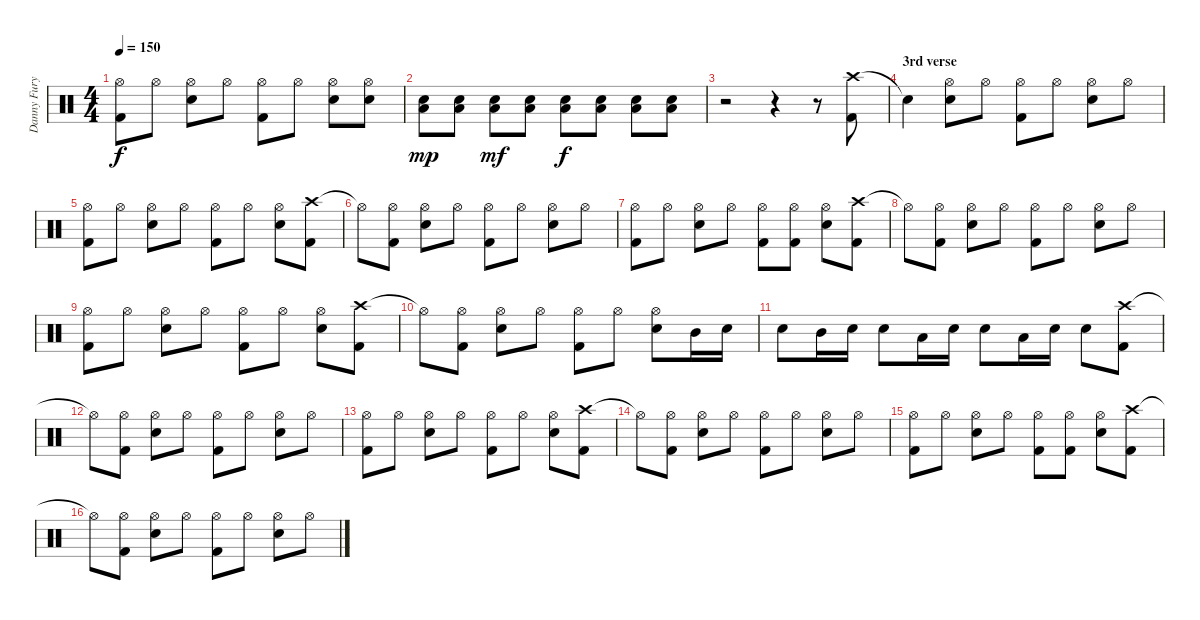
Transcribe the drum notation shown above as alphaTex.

\track ("Danny Fury" "Danny Fury") {instrument percussion}
\staff {score}
\articulation defaults
\ts (4 4)
\tempo 150
\clef neutral
\ks c
("Hi-Hat (open)" "Kick (hit) 2").8{dy f} "Hi-Hat (open)".8 ("Hi-Hat (open)" "Electric Snare (hit)").8 "Hi-Hat (open)".8 ("Hi-Hat (open)" "Kick (hit) 2").8 "Hi-Hat (open)".8 ("Hi-Hat (open)" "Electric Snare (hit)").8 ("Hi-Hat (open)" "Electric Snare (hit)").8 |
("Low Floor Tom (hit)" "Electric Snare (hit)").8{dy mp} ("Low Floor Tom (hit)" "Electric Snare (hit)").8 ("Low Floor Tom (hit)" "Electric Snare (hit)").8{dy mf} ("Low Floor Tom (hit)" "Electric Snare (hit)").8 ("Low Floor Tom (hit)" "Electric Snare (hit)").8{dy f} ("Low Floor Tom (hit)" "Electric Snare (hit)").8 ("Low Floor Tom (hit)" "Electric Snare (hit)").8 ("Low Floor Tom (hit)" "Electric Snare (hit)").8 |
r.2 r.4 r.8 ("Crash high (hit)" "Kick (hit) 2").8 |
\section ("" "3rd verse")
"Snare (hit)"{t}.4 ("Hi-Hat (open)" "Electric Snare (hit)").8 "Hi-Hat (open)".8 ("Hi-Hat (open)" "Kick (hit) 2").8 "Hi-Hat (open)".8 ("Hi-Hat (open)" "Electric Snare (hit)").8 "Hi-Hat (open)".8 |
("Hi-Hat (open)" "Kick (hit) 2").8 "Hi-Hat (open)".8 ("Hi-Hat (open)" "Electric Snare (hit)").8 "Hi-Hat (open)".8 ("Hi-Hat (open)" "Kick (hit) 2").8 "Hi-Hat (open)".8 ("Hi-Hat (open)" "Electric Snare (hit)").8 ("Crash high (hit)" "Kick (hit) 2").8 |
"Hi-Hat (open)"{t}.8 ("Hi-Hat (open)" "Kick (hit) 2").8 ("Hi-Hat (open)" "Electric Snare (hit)").8 "Hi-Hat (open)".8 ("Hi-Hat (open)" "Kick (hit) 2").8 "Hi-Hat (open)".8 ("Hi-Hat (open)" "Electric Snare (hit)").8 "Hi-Hat (open)".8 |
("Hi-Hat (open)" "Kick (hit) 2").8 "Hi-Hat (open)".8 ("Hi-Hat (open)" "Electric Snare (hit)").8 "Hi-Hat (open)".8 ("Hi-Hat (open)" "Kick (hit) 2").8 ("Hi-Hat (open)" "Kick (hit) 2").8 ("Hi-Hat (open)" "Electric Snare (hit)").8 ("Crash high (hit)" "Kick (hit) 2").8 |
"Hi-Hat (open)"{t}.8 ("Hi-Hat (open)" "Kick (hit) 2").8 ("Hi-Hat (open)" "Electric Snare (hit)").8 "Hi-Hat (open)".8 ("Hi-Hat (open)" "Kick (hit) 2").8 "Hi-Hat (open)".8 ("Hi-Hat (open)" "Electric Snare (hit)").8 "Hi-Hat (open)".8 |
("Hi-Hat (open)" "Kick (hit) 2").8 "Hi-Hat (open)".8 ("Hi-Hat (open)" "Electric Snare (hit)").8 "Hi-Hat (open)".8 ("Hi-Hat (open)" "Kick (hit) 2").8 "Hi-Hat (open)".8 ("Hi-Hat (open)" "Electric Snare (hit)").8 ("Crash high (hit)" "Kick (hit) 2").8 |
"Hi-Hat (open)"{t}.8 ("Hi-Hat (open)" "Kick (hit) 2").8 ("Hi-Hat (open)" "Electric Snare (hit)").8 "Hi-Hat (open)".8 ("Hi-Hat (open)" "Kick (hit) 2").8 "Hi-Hat (open)".8 ("Hi-Hat (open)" "Electric Snare (hit)").8 "Mid Tom (hit)".16 "Electric Snare (hit)".16 |
"Electric Snare (hit)".8 "Mid Tom (hit)".16 "Electric Snare (hit)".16 "Electric Snare (hit)".8 "Low Tom (hit)".16 "Electric Snare (hit)".16 "Electric Snare (hit)".8 "Low Tom (hit)".16 "Electric Snare (hit)".16 "Electric Snare (hit)".8 ("Crash high (hit)" "Kick (hit) 2").8 |
"Hi-Hat (open)"{t}.8 ("Hi-Hat (open)" "Kick (hit) 2").8 ("Hi-Hat (open)" "Electric Snare (hit)").8 "Hi-Hat (open)".8 ("Hi-Hat (open)" "Kick (hit) 2").8 "Hi-Hat (open)".8 ("Hi-Hat (open)" "Electric Snare (hit)").8 "Hi-Hat (open)".8 |
("Hi-Hat (open)" "Kick (hit) 2").8 "Hi-Hat (open)".8 ("Hi-Hat (open)" "Electric Snare (hit)").8 "Hi-Hat (open)".8 ("Hi-Hat (open)" "Kick (hit) 2").8 "Hi-Hat (open)".8 ("Hi-Hat (open)" "Electric Snare (hit)").8 ("Crash high (hit)" "Kick (hit) 2").8 |
"Hi-Hat (open)"{t}.8 ("Hi-Hat (open)" "Kick (hit) 2").8 ("Hi-Hat (open)" "Electric Snare (hit)").8 "Hi-Hat (open)".8 ("Hi-Hat (open)" "Kick (hit) 2").8 "Hi-Hat (open)".8 ("Hi-Hat (open)" "Electric Snare (hit)").8 "Hi-Hat (open)".8 |
("Hi-Hat (open)" "Kick (hit) 2").8 "Hi-Hat (open)".8 ("Hi-Hat (open)" "Electric Snare (hit)").8 "Hi-Hat (open)".8 ("Hi-Hat (open)" "Kick (hit) 2").8 ("Hi-Hat (open)" "Kick (hit) 2").8 ("Hi-Hat (open)" "Electric Snare (hit)").8 ("Crash high (hit)" "Kick (hit) 2").8 |
"Hi-Hat (open)"{t}.8 ("Hi-Hat (open)" "Kick (hit) 2").8 ("Hi-Hat (open)" "Electric Snare (hit)").8 "Hi-Hat (open)".8 ("Hi-Hat (open)" "Kick (hit) 2").8 "Hi-Hat (open)".8 ("Hi-Hat (open)" "Electric Snare (hit)").8 "Hi-Hat (open)".8
